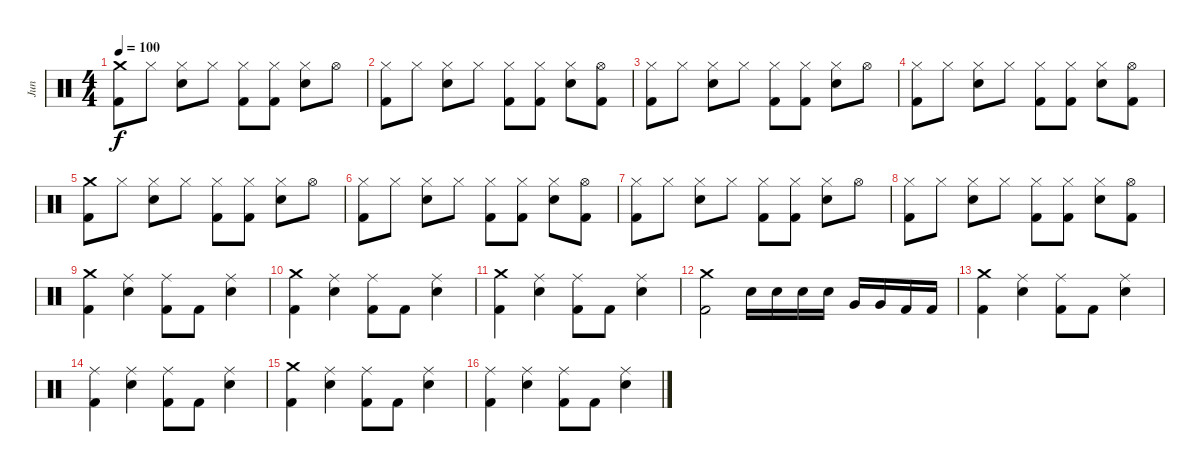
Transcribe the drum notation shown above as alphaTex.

\track ("Jun " "Jun ") {instrument percussion}
\staff {score}
\articulation defaults
\ts (4 4)
\tempo 100
\clef neutral
\ks c
("Crash medium (hit)" "Kick (hit) 2").8{dy f} "Hi-Hat (closed)".8 ("Hi-Hat (closed)" "Snare (hit) 2").8 "Hi-Hat (closed)".8 ("Hi-Hat (closed)" "Kick (hit) 2").8 ("Hi-Hat (closed)" "Kick (hit) 2").8 ("Hi-Hat (closed)" "Snare (hit) 2").8 "Hi-Hat (open)".8 |
("Hi-Hat (closed)" "Kick (hit) 2").8 "Hi-Hat (closed)".8 ("Hi-Hat (closed)" "Snare (hit) 2").8 "Hi-Hat (closed)".8 ("Hi-Hat (closed)" "Kick (hit) 2").8 ("Hi-Hat (closed)" "Kick (hit) 2").8 ("Hi-Hat (closed)" "Snare (hit) 2").8 ("Hi-Hat (open)" "Kick (hit) 2").8 |
("Hi-Hat (closed)" "Kick (hit) 2").8 "Hi-Hat (closed)".8 ("Hi-Hat (closed)" "Snare (hit) 2").8 "Hi-Hat (closed)".8 ("Hi-Hat (closed)" "Kick (hit) 2").8 ("Hi-Hat (closed)" "Kick (hit) 2").8 ("Hi-Hat (closed)" "Snare (hit) 2").8 "Hi-Hat (open)".8 |
("Hi-Hat (closed)" "Kick (hit) 2").8 "Hi-Hat (closed)".8 ("Hi-Hat (closed)" "Snare (hit) 2").8 "Hi-Hat (closed)".8 ("Hi-Hat (closed)" "Kick (hit) 2").8 ("Hi-Hat (closed)" "Kick (hit) 2").8 ("Hi-Hat (closed)" "Snare (hit) 2").8 ("Hi-Hat (open)" "Kick (hit) 2").8 |
("Crash medium (hit)" "Kick (hit) 2").8 "Hi-Hat (closed)".8 ("Hi-Hat (closed)" "Snare (hit) 2").8 "Hi-Hat (closed)".8 ("Hi-Hat (closed)" "Kick (hit) 2").8 ("Hi-Hat (closed)" "Kick (hit) 2").8 ("Hi-Hat (closed)" "Snare (hit) 2").8 "Hi-Hat (open)".8 |
("Hi-Hat (closed)" "Kick (hit) 2").8 "Hi-Hat (closed)".8 ("Hi-Hat (closed)" "Snare (hit) 2").8 "Hi-Hat (closed)".8 ("Hi-Hat (closed)" "Kick (hit) 2").8 ("Hi-Hat (closed)" "Kick (hit) 2").8 ("Hi-Hat (closed)" "Snare (hit) 2").8 ("Hi-Hat (open)" "Kick (hit) 2").8 |
("Hi-Hat (closed)" "Kick (hit) 2").8 "Hi-Hat (closed)".8 ("Hi-Hat (closed)" "Snare (hit) 2").8 "Hi-Hat (closed)".8 ("Hi-Hat (closed)" "Kick (hit) 2").8 ("Hi-Hat (closed)" "Kick (hit) 2").8 ("Hi-Hat (closed)" "Snare (hit) 2").8 "Hi-Hat (open)".8 |
("Hi-Hat (closed)" "Kick (hit) 2").8 "Hi-Hat (closed)".8 ("Hi-Hat (closed)" "Snare (hit) 2").8 "Hi-Hat (closed)".8 ("Hi-Hat (closed)" "Kick (hit) 2").8 ("Hi-Hat (closed)" "Kick (hit) 2").8 ("Hi-Hat (closed)" "Snare (hit) 2").8 ("Hi-Hat (open)" "Kick (hit) 2").8 |
("Crash medium (hit)" "Kick (hit) 2").4 ("Ride (middle)" "Snare (hit) 2").4 ("Ride (middle)" "Kick (hit) 2").8 "Kick (hit) 2".8 ("Ride (middle)" "Snare (hit) 2").4 |
("Crash medium (hit)" "Kick (hit) 2").4 ("Ride (middle)" "Snare (hit) 2").4 ("Ride (middle)" "Kick (hit) 2").8 "Kick (hit) 2".8 ("Ride (middle)" "Snare (hit) 2").4 |
("Crash medium (hit)" "Kick (hit) 2").4 ("Ride (middle)" "Snare (hit) 2").4 ("Ride (middle)" "Kick (hit) 2").8 "Kick (hit) 2".8 ("Ride (middle)" "Snare (hit) 2").4 |
("Crash medium (hit)" "Kick (hit) 2").2 "Snare (hit) 2".16 "Snare (hit) 2".16 "Snare (hit) 2".16 "Snare (hit) 2".16 "Very Low Tom (hit)".16 "Very Low Tom (hit)".16 "Kick (hit) 2".16 "Kick (hit) 2".16 |
("Crash medium (hit)" "Kick (hit) 2").4 ("Ride (middle)" "Snare (hit) 2").4 ("Ride (middle)" "Kick (hit) 2").8 "Kick (hit) 2".8 ("Ride (middle)" "Snare (hit) 2").4 |
("Ride (middle)" "Kick (hit) 2").4 ("Ride (middle)" "Snare (hit) 2").4 ("Ride (middle)" "Kick (hit) 2").8 "Kick (hit) 2".8 ("Ride (middle)" "Snare (hit) 2").4 |
("Crash medium (hit)" "Kick (hit) 2").4 ("Ride (middle)" "Snare (hit) 2").4 ("Ride (middle)" "Kick (hit) 2").8 "Kick (hit) 2".8 ("Ride (middle)" "Snare (hit) 2").4 |
("Ride (middle)" "Kick (hit) 2").4 ("Ride (middle)" "Snare (hit) 2").4 ("Ride (middle)" "Kick (hit) 2").8 "Kick (hit) 2".8 ("Ride (middle)" "Snare (hit) 2").4
